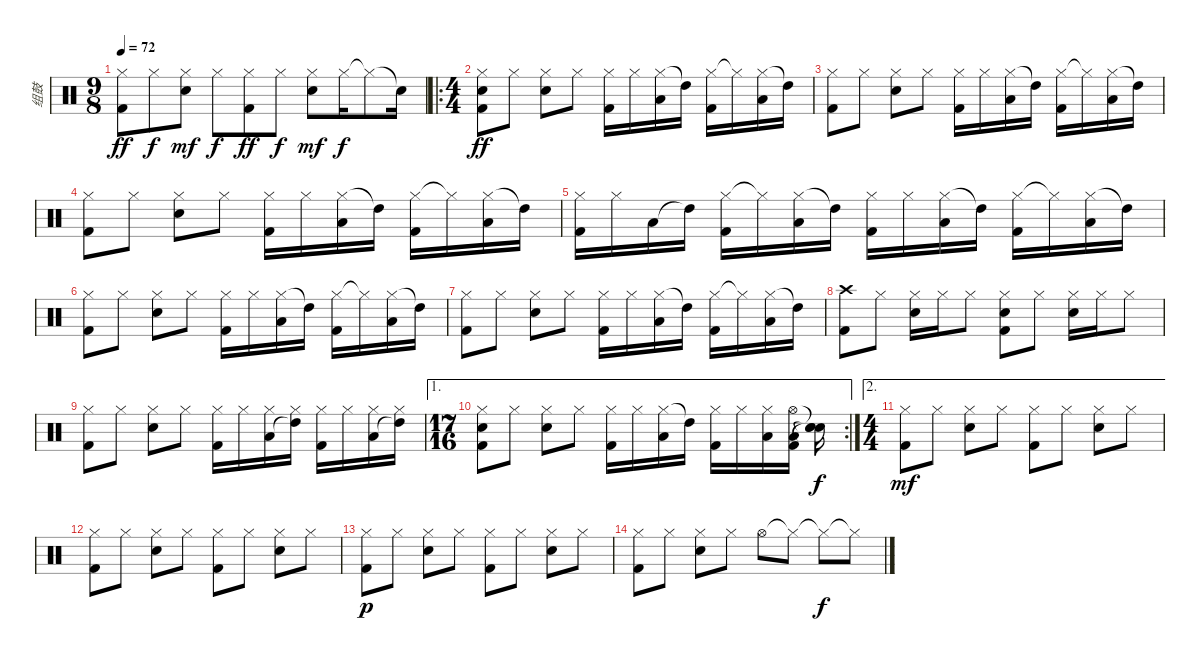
\track ("组鼓" "组鼓") {instrument percussion}
\staff {score}
\articulation defaults
\ts (9 8)
\tempo 72
\clef neutral
\ks c
("Hi-Hat (closed)" "Kick (hit) 2").8{dy ff} "Hi-Hat (closed)".8{dy f} ("Hi-Hat (closed)" "Snare (hit) 2").8{dy mf} "Hi-Hat (closed)".8{dy f} ("Hi-Hat (closed)" "Kick (hit) 2").8{dy ff} "Hi-Hat (closed)".8{dy f} ("Hi-Hat (closed)" "Snare (hit) 2").8{dy mf} "Hi-Hat (closed)".16{dy f} "Hi-Hat (closed)"{t}.8 "Snare (hit)"{t}.16 |
\ro
\ts (4 4)
("Hi-Hat (closed)" "Snare (hit) 2" "Kick (hit) 2").8{dy ff} "Hi-Hat (closed)".8 ("Hi-Hat (closed)" "Snare (hit) 2").8 "Hi-Hat (closed)".8 ("Hi-Hat (closed)" "Kick (hit) 2").16 "Hi-Hat (closed)".16 ("Hi-Hat (closed)" "Low Tom (hit)").16 "High Tom (hit)"{t}.16 ("Hi-Hat (closed)" "Kick (hit) 2").16 "Hi-Hat (closed)"{t}.16 ("Hi-Hat (closed)" "Low Tom (hit)").16 "High Tom (hit)"{t}.16 |
("Hi-Hat (closed)" "Kick (hit) 2").8 "Hi-Hat (closed)".8 ("Hi-Hat (closed)" "Snare (hit) 2").8 "Hi-Hat (closed)".8 ("Hi-Hat (closed)" "Kick (hit) 2").16 "Hi-Hat (closed)".16 ("Hi-Hat (closed)" "Low Tom (hit)").16 "High Tom (hit)"{t}.16 ("Hi-Hat (closed)" "Kick (hit) 2").16 "Hi-Hat (closed)"{t}.16 ("Hi-Hat (closed)" "Low Tom (hit)").16 "High Tom (hit)"{t}.16 |
("Hi-Hat (closed)" "Kick (hit) 2").8 "Hi-Hat (closed)".8 ("Hi-Hat (closed)" "Snare (hit) 2").8 "Hi-Hat (closed)".8 ("Hi-Hat (closed)" "Kick (hit) 2").16 "Hi-Hat (closed)".16 ("Hi-Hat (closed)" "Low Tom (hit)").16 "High Tom (hit)"{t}.16 ("Hi-Hat (closed)" "Kick (hit) 2").16 "Hi-Hat (closed)"{t}.16 ("Hi-Hat (closed)" "Low Tom (hit)").16 "High Tom (hit)"{t}.16 |
("Hi-Hat (closed)" "Kick (hit) 2").16 "Hi-Hat (closed)".16 "Low Tom (hit)".16 "High Tom (hit)"{t}.16 ("Hi-Hat (closed)" "Kick (hit) 2").16 "Hi-Hat (closed)"{t}.16 ("Hi-Hat (closed)" "Low Tom (hit)").16 "High Tom (hit)"{t}.16 ("Hi-Hat (closed)" "Kick (hit) 2").16 "Hi-Hat (closed)".16 ("Hi-Hat (closed)" "Low Tom (hit)").16 "High Tom (hit)"{t}.16 ("Hi-Hat (closed)" "Kick (hit) 2").16 "Hi-Hat (closed)"{t}.16 ("Hi-Hat (closed)" "Low Tom (hit)").16 "High Tom (hit)"{t}.16 |
("Hi-Hat (closed)" "Kick (hit) 2").8 "Hi-Hat (closed)".8 ("Hi-Hat (closed)" "Snare (hit) 2").8 "Hi-Hat (closed)".8 ("Hi-Hat (closed)" "Kick (hit) 2").16 "Hi-Hat (closed)".16 ("Hi-Hat (closed)" "Low Tom (hit)").16 "High Tom (hit)"{t}.16 ("Hi-Hat (closed)" "Kick (hit) 2").16 "Hi-Hat (closed)"{t}.16 ("Hi-Hat (closed)" "Low Tom (hit)").16 "High Tom (hit)"{t}.16 |
("Hi-Hat (closed)" "Kick (hit) 2").8 "Hi-Hat (closed)".8 ("Hi-Hat (closed)" "Snare (hit) 2").8 "Hi-Hat (closed)".8 ("Hi-Hat (closed)" "Kick (hit) 2").16 "Hi-Hat (closed)".16 ("Hi-Hat (closed)" "Low Tom (hit)").16 "High Tom (hit)"{t}.16 ("Hi-Hat (closed)" "Kick (hit) 2").16 "Hi-Hat (closed)"{t}.16 ("Hi-Hat (closed)" "Low Tom (hit)").16 "High Tom (hit)"{t}.16 |
("Crash high (hit)" "Kick (hit) 2").8 "Hi-Hat (closed)".8 ("Hi-Hat (closed)" "Snare (hit) 2").16 "Hi-Hat (closed)".16 "Hi-Hat (closed)".8 ("Hi-Hat (closed)" "Snare (hit) 2" "Kick (hit) 2").8 "Hi-Hat (closed)".8 ("Hi-Hat (closed)" "Snare (hit) 2").16 "Hi-Hat (closed)".16 "Hi-Hat (closed)".8 |
("Hi-Hat (closed)" "Kick (hit) 2").8 "Hi-Hat (closed)".8 ("Hi-Hat (closed)" "Snare (hit) 2").8 "Hi-Hat (closed)".8 ("Hi-Hat (closed)" "Kick (hit) 2").16 "Hi-Hat (closed)".16 ("Hi-Hat (closed)" "Low Tom (hit)").16 ("Hi-Hat (closed)" "High Tom (hit)"{t}).16 ("Hi-Hat (closed)" "Kick (hit) 2").16 "Hi-Hat (closed)".16 ("Hi-Hat (closed)" "Low Tom (hit)").16 ("Hi-Hat (closed)" "High Tom (hit)"{t}).16 |
\ae 1
\rc 2
\ts (17 16)
("Hi-Hat (closed)" "Snare (hit) 2" "Kick (hit) 2").8 "Hi-Hat (closed)".8 ("Hi-Hat (closed)" "Snare (hit) 2").8 "Hi-Hat (closed)".8 ("Hi-Hat (closed)" "Kick (hit) 2").16 "Hi-Hat (closed)".16 ("Hi-Hat (closed)" "Low Tom (hit)").16 "High Tom (hit)"{t}.16 ("Hi-Hat (closed)" "Kick (hit) 2").16 "Hi-Hat (closed)".16 ("Hi-Hat (closed)" "Low Tom (hit)").16 ("Hi-Hat (open)" "Low Tom (hit)" "Kick (hit) 2").16 ("Snare (hit)"{t} "Snare (hit)"{t} "Snare (hit)"{t}).16{dy f} |
\ae 2
\ts (4 4)
("Hi-Hat (closed)" "Kick (hit) 2").8{dy mf} "Hi-Hat (closed)".8 ("Hi-Hat (closed)" "Snare (hit) 2").8 "Hi-Hat (closed)".8 ("Hi-Hat (closed)" "Kick (hit) 2").8 "Hi-Hat (closed)".8 ("Hi-Hat (closed)" "Snare (hit) 2").8 "Hi-Hat (closed)".8 |
("Hi-Hat (closed)" "Kick (hit) 2").8 "Hi-Hat (closed)".8 ("Hi-Hat (closed)" "Snare (hit) 2").8 "Hi-Hat (closed)".8 ("Hi-Hat (closed)" "Kick (hit) 2").8 "Hi-Hat (closed)".8 ("Hi-Hat (closed)" "Snare (hit) 2").8 "Hi-Hat (closed)".8 |
("Hi-Hat (closed)" "Kick (hit) 2").8{dy p} "Hi-Hat (closed)".8 ("Hi-Hat (closed)" "Snare (hit) 2").8 "Hi-Hat (closed)".8 ("Hi-Hat (closed)" "Kick (hit) 2").8 "Hi-Hat (closed)".8 ("Hi-Hat (closed)" "Snare (hit) 2").8 "Hi-Hat (closed)".8 |
("Hi-Hat (closed)" "Kick (hit) 2").8 "Hi-Hat (closed)".8 ("Hi-Hat (closed)" "Snare (hit) 2").8 "Hi-Hat (closed)".8 "Hi-Hat (open)".8 "Hi-Hat (closed)"{t}.8 "Hi-Hat (closed)"{t}.8{dy f} "Hi-Hat (closed)"{t}.8
